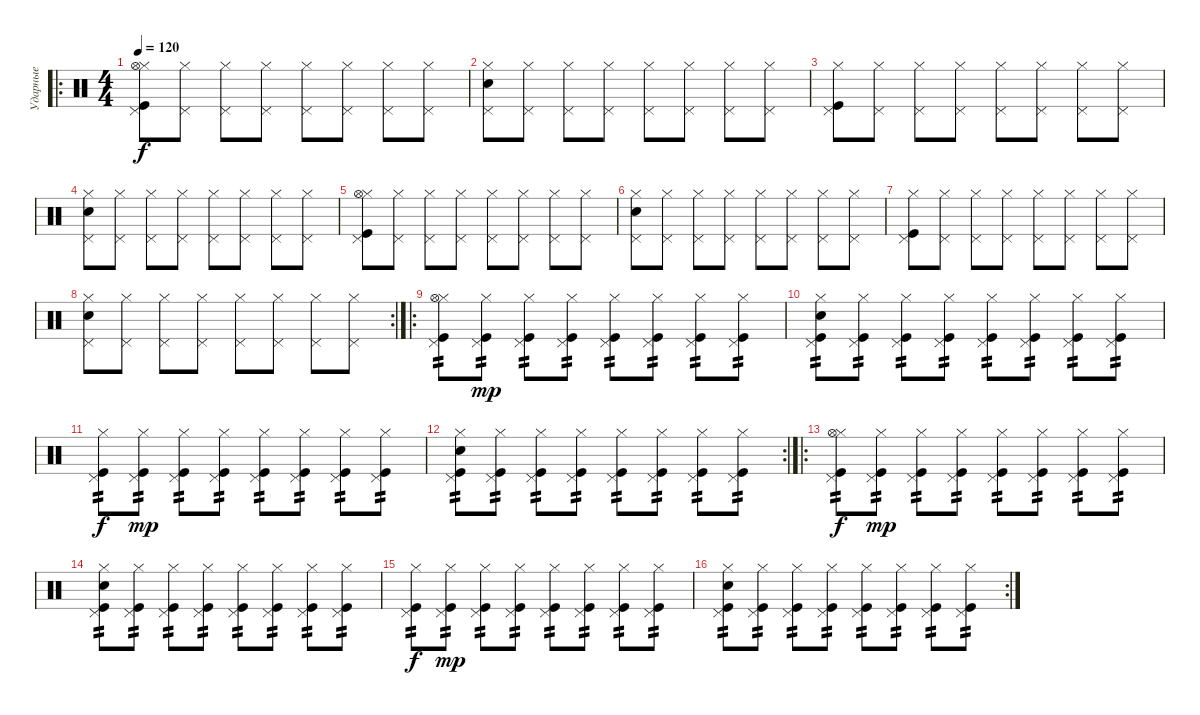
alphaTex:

\track ("Ударные" "Ударные") {instrument percussion}
\staff {score}
\articulation defaults
\ro
\ts (4 4)
\tempo 120
\clef neutral
\ks c
("Hi-Hat (closed)" "Pedal Hi-Hat (hit)" "Hi-Hat (open)" "Kick (hit)").8{dy f} ("Hi-Hat (closed)" "Pedal Hi-Hat (hit)").8 ("Hi-Hat (closed)" "Pedal Hi-Hat (hit)").8 ("Hi-Hat (closed)" "Pedal Hi-Hat (hit)").8 ("Hi-Hat (closed)" "Pedal Hi-Hat (hit)").8 ("Hi-Hat (closed)" "Pedal Hi-Hat (hit)").8 ("Hi-Hat (closed)" "Pedal Hi-Hat (hit)").8 ("Hi-Hat (closed)" "Pedal Hi-Hat (hit)").8 |
("Hi-Hat (closed)" "Pedal Hi-Hat (hit)" "Electric Snare (hit)").8 ("Hi-Hat (closed)" "Pedal Hi-Hat (hit)").8 ("Hi-Hat (closed)" "Pedal Hi-Hat (hit)").8 ("Hi-Hat (closed)" "Pedal Hi-Hat (hit)").8 ("Hi-Hat (closed)" "Pedal Hi-Hat (hit)").8 ("Hi-Hat (closed)" "Pedal Hi-Hat (hit)").8 ("Hi-Hat (closed)" "Pedal Hi-Hat (hit)").8 ("Hi-Hat (closed)" "Pedal Hi-Hat (hit)").8 |
("Hi-Hat (closed)" "Pedal Hi-Hat (hit)" "Kick (hit)").8 ("Hi-Hat (closed)" "Pedal Hi-Hat (hit)").8 ("Hi-Hat (closed)" "Pedal Hi-Hat (hit)").8 ("Hi-Hat (closed)" "Pedal Hi-Hat (hit)").8 ("Hi-Hat (closed)" "Pedal Hi-Hat (hit)").8 ("Hi-Hat (closed)" "Pedal Hi-Hat (hit)").8 ("Hi-Hat (closed)" "Pedal Hi-Hat (hit)").8 ("Hi-Hat (closed)" "Pedal Hi-Hat (hit)").8 |
("Hi-Hat (closed)" "Pedal Hi-Hat (hit)" "Electric Snare (hit)").8 ("Hi-Hat (closed)" "Pedal Hi-Hat (hit)").8 ("Hi-Hat (closed)" "Pedal Hi-Hat (hit)").8 ("Hi-Hat (closed)" "Pedal Hi-Hat (hit)").8 ("Hi-Hat (closed)" "Pedal Hi-Hat (hit)").8 ("Hi-Hat (closed)" "Pedal Hi-Hat (hit)").8 ("Hi-Hat (closed)" "Pedal Hi-Hat (hit)").8 ("Hi-Hat (closed)" "Pedal Hi-Hat (hit)").8 |
("Hi-Hat (closed)" "Pedal Hi-Hat (hit)" "Hi-Hat (open)" "Kick (hit)").8 ("Hi-Hat (closed)" "Pedal Hi-Hat (hit)").8 ("Hi-Hat (closed)" "Pedal Hi-Hat (hit)").8 ("Hi-Hat (closed)" "Pedal Hi-Hat (hit)").8 ("Hi-Hat (closed)" "Pedal Hi-Hat (hit)").8 ("Hi-Hat (closed)" "Pedal Hi-Hat (hit)").8 ("Hi-Hat (closed)" "Pedal Hi-Hat (hit)").8 ("Hi-Hat (closed)" "Pedal Hi-Hat (hit)").8 |
("Hi-Hat (closed)" "Pedal Hi-Hat (hit)" "Electric Snare (hit)").8 ("Hi-Hat (closed)" "Pedal Hi-Hat (hit)").8 ("Hi-Hat (closed)" "Pedal Hi-Hat (hit)").8 ("Hi-Hat (closed)" "Pedal Hi-Hat (hit)").8 ("Hi-Hat (closed)" "Pedal Hi-Hat (hit)").8 ("Hi-Hat (closed)" "Pedal Hi-Hat (hit)").8 ("Hi-Hat (closed)" "Pedal Hi-Hat (hit)").8 ("Hi-Hat (closed)" "Pedal Hi-Hat (hit)").8 |
("Hi-Hat (closed)" "Pedal Hi-Hat (hit)" "Kick (hit)").8 ("Hi-Hat (closed)" "Pedal Hi-Hat (hit)").8 ("Hi-Hat (closed)" "Pedal Hi-Hat (hit)").8 ("Hi-Hat (closed)" "Pedal Hi-Hat (hit)").8 ("Hi-Hat (closed)" "Pedal Hi-Hat (hit)").8 ("Hi-Hat (closed)" "Pedal Hi-Hat (hit)").8 ("Hi-Hat (closed)" "Pedal Hi-Hat (hit)").8 ("Hi-Hat (closed)" "Pedal Hi-Hat (hit)").8 |
\rc 2
("Hi-Hat (closed)" "Pedal Hi-Hat (hit)" "Electric Snare (hit)").8 ("Hi-Hat (closed)" "Pedal Hi-Hat (hit)").8 ("Hi-Hat (closed)" "Pedal Hi-Hat (hit)").8 ("Hi-Hat (closed)" "Pedal Hi-Hat (hit)").8 ("Hi-Hat (closed)" "Pedal Hi-Hat (hit)").8 ("Hi-Hat (closed)" "Pedal Hi-Hat (hit)").8 ("Hi-Hat (closed)" "Pedal Hi-Hat (hit)").8 ("Hi-Hat (closed)" "Pedal Hi-Hat (hit)").8 |
\ro
("Hi-Hat (closed)" "Pedal Hi-Hat (hit)" "Hi-Hat (open)" "Kick (hit)").8{tp 2} ("Hi-Hat (closed)" "Pedal Hi-Hat (hit)" "Kick (hit)").8{tp 2 dy mp} ("Hi-Hat (closed)" "Pedal Hi-Hat (hit)" "Kick (hit)").8{tp 2} ("Hi-Hat (closed)" "Pedal Hi-Hat (hit)" "Kick (hit)").8{tp 2} ("Hi-Hat (closed)" "Pedal Hi-Hat (hit)" "Kick (hit)").8{tp 2} ("Hi-Hat (closed)" "Pedal Hi-Hat (hit)" "Kick (hit)").8{tp 2} ("Hi-Hat (closed)" "Pedal Hi-Hat (hit)" "Kick (hit)").8{tp 2} ("Hi-Hat (closed)" "Pedal Hi-Hat (hit)" "Kick (hit)").8{tp 2} |
("Hi-Hat (closed)" "Pedal Hi-Hat (hit)" "Electric Snare (hit)" "Kick (hit)").8{tp 2} ("Hi-Hat (closed)" "Pedal Hi-Hat (hit)" "Kick (hit)").8{tp 2} ("Hi-Hat (closed)" "Pedal Hi-Hat (hit)" "Kick (hit)").8{tp 2} ("Hi-Hat (closed)" "Pedal Hi-Hat (hit)" "Kick (hit)").8{tp 2} ("Hi-Hat (closed)" "Pedal Hi-Hat (hit)" "Kick (hit)").8{tp 2} ("Hi-Hat (closed)" "Pedal Hi-Hat (hit)" "Kick (hit)").8{tp 2} ("Hi-Hat (closed)" "Pedal Hi-Hat (hit)" "Kick (hit)").8{tp 2} ("Hi-Hat (closed)" "Pedal Hi-Hat (hit)" "Kick (hit)").8{tp 2} |
("Hi-Hat (closed)" "Pedal Hi-Hat (hit)" "Kick (hit)").8{tp 2 dy f} ("Hi-Hat (closed)" "Pedal Hi-Hat (hit)" "Kick (hit)").8{tp 2 dy mp} ("Hi-Hat (closed)" "Pedal Hi-Hat (hit)" "Kick (hit)").8{tp 2} ("Hi-Hat (closed)" "Pedal Hi-Hat (hit)" "Kick (hit)").8{tp 2} ("Hi-Hat (closed)" "Pedal Hi-Hat (hit)" "Kick (hit)").8{tp 2} ("Hi-Hat (closed)" "Pedal Hi-Hat (hit)" "Kick (hit)").8{tp 2} ("Hi-Hat (closed)" "Pedal Hi-Hat (hit)" "Kick (hit)").8{tp 2} ("Hi-Hat (closed)" "Pedal Hi-Hat (hit)" "Kick (hit)").8{tp 2} |
\rc 2
("Hi-Hat (closed)" "Pedal Hi-Hat (hit)" "Electric Snare (hit)" "Kick (hit)").8{tp 2} ("Hi-Hat (closed)" "Pedal Hi-Hat (hit)" "Kick (hit)").8{tp 2} ("Hi-Hat (closed)" "Pedal Hi-Hat (hit)" "Kick (hit)").8{tp 2} ("Hi-Hat (closed)" "Pedal Hi-Hat (hit)" "Kick (hit)").8{tp 2} ("Hi-Hat (closed)" "Pedal Hi-Hat (hit)" "Kick (hit)").8{tp 2} ("Hi-Hat (closed)" "Pedal Hi-Hat (hit)" "Kick (hit)").8{tp 2} ("Hi-Hat (closed)" "Pedal Hi-Hat (hit)" "Kick (hit)").8{tp 2} ("Hi-Hat (closed)" "Pedal Hi-Hat (hit)" "Kick (hit)").8{tp 2} |
\ro
("Hi-Hat (closed)" "Pedal Hi-Hat (hit)" "Hi-Hat (open)" "Kick (hit)").8{tp 2 dy f} ("Hi-Hat (closed)" "Pedal Hi-Hat (hit)" "Kick (hit)").8{tp 2 dy mp} ("Hi-Hat (closed)" "Pedal Hi-Hat (hit)" "Kick (hit)").8{tp 2} ("Hi-Hat (closed)" "Pedal Hi-Hat (hit)" "Kick (hit)").8{tp 2} ("Hi-Hat (closed)" "Pedal Hi-Hat (hit)" "Kick (hit)").8{tp 2} ("Hi-Hat (closed)" "Pedal Hi-Hat (hit)" "Kick (hit)").8{tp 2} ("Hi-Hat (closed)" "Pedal Hi-Hat (hit)" "Kick (hit)").8{tp 2} ("Hi-Hat (closed)" "Pedal Hi-Hat (hit)" "Kick (hit)").8{tp 2} |
("Hi-Hat (closed)" "Pedal Hi-Hat (hit)" "Electric Snare (hit)" "Kick (hit)").8{tp 2} ("Hi-Hat (closed)" "Pedal Hi-Hat (hit)" "Kick (hit)").8{tp 2} ("Hi-Hat (closed)" "Pedal Hi-Hat (hit)" "Kick (hit)").8{tp 2} ("Hi-Hat (closed)" "Pedal Hi-Hat (hit)" "Kick (hit)").8{tp 2} ("Hi-Hat (closed)" "Pedal Hi-Hat (hit)" "Kick (hit)").8{tp 2} ("Hi-Hat (closed)" "Pedal Hi-Hat (hit)" "Kick (hit)").8{tp 2} ("Hi-Hat (closed)" "Pedal Hi-Hat (hit)" "Kick (hit)").8{tp 2} ("Hi-Hat (closed)" "Pedal Hi-Hat (hit)" "Kick (hit)").8{tp 2} |
("Hi-Hat (closed)" "Pedal Hi-Hat (hit)" "Kick (hit)").8{tp 2 dy f} ("Hi-Hat (closed)" "Pedal Hi-Hat (hit)" "Kick (hit)").8{tp 2 dy mp} ("Hi-Hat (closed)" "Pedal Hi-Hat (hit)" "Kick (hit)").8{tp 2} ("Hi-Hat (closed)" "Pedal Hi-Hat (hit)" "Kick (hit)").8{tp 2} ("Hi-Hat (closed)" "Pedal Hi-Hat (hit)" "Kick (hit)").8{tp 2} ("Hi-Hat (closed)" "Pedal Hi-Hat (hit)" "Kick (hit)").8{tp 2} ("Hi-Hat (closed)" "Pedal Hi-Hat (hit)" "Kick (hit)").8{tp 2} ("Hi-Hat (closed)" "Pedal Hi-Hat (hit)" "Kick (hit)").8{tp 2} |
\rc 2
("Hi-Hat (closed)" "Pedal Hi-Hat (hit)" "Electric Snare (hit)" "Kick (hit)").8{tp 2} ("Hi-Hat (closed)" "Pedal Hi-Hat (hit)" "Kick (hit)").8{tp 2} ("Hi-Hat (closed)" "Pedal Hi-Hat (hit)" "Kick (hit)").8{tp 2} ("Hi-Hat (closed)" "Pedal Hi-Hat (hit)" "Kick (hit)").8{tp 2} ("Hi-Hat (closed)" "Pedal Hi-Hat (hit)" "Kick (hit)").8{tp 2} ("Hi-Hat (closed)" "Pedal Hi-Hat (hit)" "Kick (hit)").8{tp 2} ("Hi-Hat (closed)" "Pedal Hi-Hat (hit)" "Kick (hit)").8{tp 2} ("Hi-Hat (closed)" "Pedal Hi-Hat (hit)" "Kick (hit)").8{tp 2}
